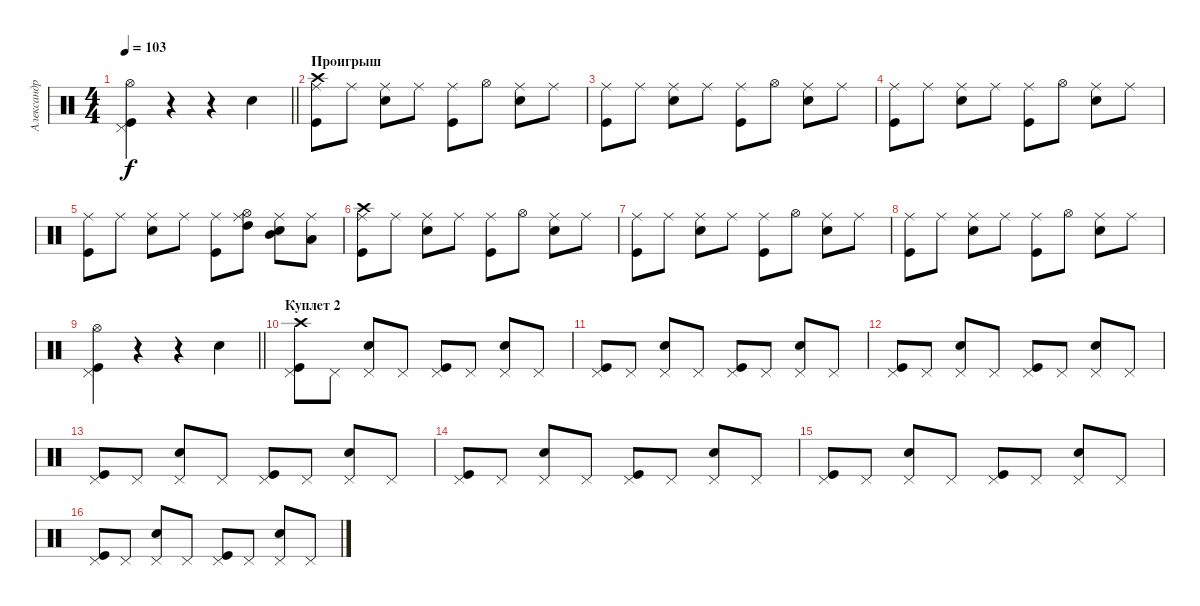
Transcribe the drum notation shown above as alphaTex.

\track ("Александр Ерохин (ударные)" "Александр ") {instrument percussion}
\staff {score}
\articulation defaults
\ts (4 4)
\tempo 103
\clef neutral
\barLineRight lightlight
\ks c
("Kick (hit)" "Pedal Hi-Hat (hit)" "Hi-Hat (open)").4{dy f} r.4 r.4 "Snare (hit) 2".4 |
\section ("" "Проигрыш")
("Kick (hit)" "Ride (middle)" "Crash high (hit)").8 "Ride (middle)".8 ("Ride (middle)" "Snare (hit) 2").8 "Ride (middle)".8 ("Kick (hit)" "Ride (middle)").8 "Hi-Hat (open)".8 ("Ride (middle)" "Snare (hit) 2").8 "Ride (middle)".8 |
("Kick (hit)" "Ride (middle)").8 "Ride (middle)".8 ("Ride (middle)" "Snare (hit) 2").8 "Ride (middle)".8 ("Kick (hit)" "Ride (middle)").8 "Hi-Hat (open)".8 ("Ride (middle)" "Snare (hit) 2").8 "Ride (middle)".8 |
("Kick (hit)" "Ride (middle)").8 "Ride (middle)".8 ("Ride (middle)" "Snare (hit) 2").8 "Ride (middle)".8 ("Kick (hit)" "Ride (middle)").8 "Hi-Hat (open)".8 ("Ride (middle)" "Snare (hit) 2").8 "Ride (middle)".8 |
("Kick (hit)" "Ride (middle)").8 "Ride (middle)".8 ("Ride (middle)" "Snare (hit) 2").8 "Ride (middle)".8 ("Kick (hit)" "Ride (middle)").8 ("Ride (middle)" "Hi-Hat (open)" "High Tom (hit)").8 ("Ride (middle)" "Snare (hit) 2" "Mid Tom (hit)").8 ("Ride (middle)" "Low Tom (hit)").8 |
("Kick (hit)" "Ride (middle)" "Crash high (hit)").8 "Ride (middle)".8 ("Ride (middle)" "Snare (hit) 2").8 "Ride (middle)".8 ("Kick (hit)" "Ride (middle)").8 "Hi-Hat (open)".8 ("Ride (middle)" "Snare (hit) 2").8 "Ride (middle)".8 |
("Kick (hit)" "Ride (middle)").8 "Ride (middle)".8 ("Ride (middle)" "Snare (hit) 2").8 "Ride (middle)".8 ("Kick (hit)" "Ride (middle)").8 "Hi-Hat (open)".8 ("Ride (middle)" "Snare (hit) 2").8 "Ride (middle)".8 |
("Kick (hit)" "Ride (middle)").8 "Ride (middle)".8 ("Ride (middle)" "Snare (hit) 2").8 "Ride (middle)".8 ("Kick (hit)" "Ride (middle)").8 "Hi-Hat (open)".8 ("Ride (middle)" "Snare (hit) 2").8 "Ride (middle)".8 |
\barLineRight lightlight
("Kick (hit)" "Pedal Hi-Hat (hit)" "Hi-Hat (open)").4 r.4 r.4 "Snare (hit) 2".4 |
\section ("" "Куплет 2")
("Kick (hit)" "Pedal Hi-Hat (hit)" "Crash high (hit)").8 "Pedal Hi-Hat (hit)".8 ("Pedal Hi-Hat (hit)" "Snare (hit) 2").8 "Pedal Hi-Hat (hit)".8 ("Kick (hit)" "Pedal Hi-Hat (hit)").8 "Pedal Hi-Hat (hit)".8 ("Pedal Hi-Hat (hit)" "Snare (hit) 2").8 "Pedal Hi-Hat (hit)".8 |
("Kick (hit)" "Pedal Hi-Hat (hit)").8 "Pedal Hi-Hat (hit)".8 ("Pedal Hi-Hat (hit)" "Snare (hit) 2").8 "Pedal Hi-Hat (hit)".8 ("Kick (hit)" "Pedal Hi-Hat (hit)").8 "Pedal Hi-Hat (hit)".8 ("Pedal Hi-Hat (hit)" "Snare (hit) 2").8 "Pedal Hi-Hat (hit)".8 |
("Kick (hit)" "Pedal Hi-Hat (hit)").8 "Pedal Hi-Hat (hit)".8 ("Pedal Hi-Hat (hit)" "Snare (hit) 2").8 "Pedal Hi-Hat (hit)".8 ("Kick (hit)" "Pedal Hi-Hat (hit)").8 "Pedal Hi-Hat (hit)".8 ("Pedal Hi-Hat (hit)" "Snare (hit) 2").8 "Pedal Hi-Hat (hit)".8 |
("Kick (hit)" "Pedal Hi-Hat (hit)").8 "Pedal Hi-Hat (hit)".8 ("Pedal Hi-Hat (hit)" "Snare (hit) 2").8 "Pedal Hi-Hat (hit)".8 ("Kick (hit)" "Pedal Hi-Hat (hit)").8 "Pedal Hi-Hat (hit)".8 ("Pedal Hi-Hat (hit)" "Snare (hit) 2").8 "Pedal Hi-Hat (hit)".8 |
("Kick (hit)" "Pedal Hi-Hat (hit)").8 "Pedal Hi-Hat (hit)".8 ("Pedal Hi-Hat (hit)" "Snare (hit) 2").8 "Pedal Hi-Hat (hit)".8 ("Kick (hit)" "Pedal Hi-Hat (hit)").8 "Pedal Hi-Hat (hit)".8 ("Pedal Hi-Hat (hit)" "Snare (hit) 2").8 "Pedal Hi-Hat (hit)".8 |
("Kick (hit)" "Pedal Hi-Hat (hit)").8 "Pedal Hi-Hat (hit)".8 ("Pedal Hi-Hat (hit)" "Snare (hit) 2").8 "Pedal Hi-Hat (hit)".8 ("Kick (hit)" "Pedal Hi-Hat (hit)").8 "Pedal Hi-Hat (hit)".8 ("Pedal Hi-Hat (hit)" "Snare (hit) 2").8 "Pedal Hi-Hat (hit)".8 |
("Kick (hit)" "Pedal Hi-Hat (hit)").8 "Pedal Hi-Hat (hit)".8 ("Pedal Hi-Hat (hit)" "Snare (hit) 2").8 "Pedal Hi-Hat (hit)".8 ("Kick (hit)" "Pedal Hi-Hat (hit)").8 "Pedal Hi-Hat (hit)".8 ("Pedal Hi-Hat (hit)" "Snare (hit) 2").8 "Pedal Hi-Hat (hit)".8
